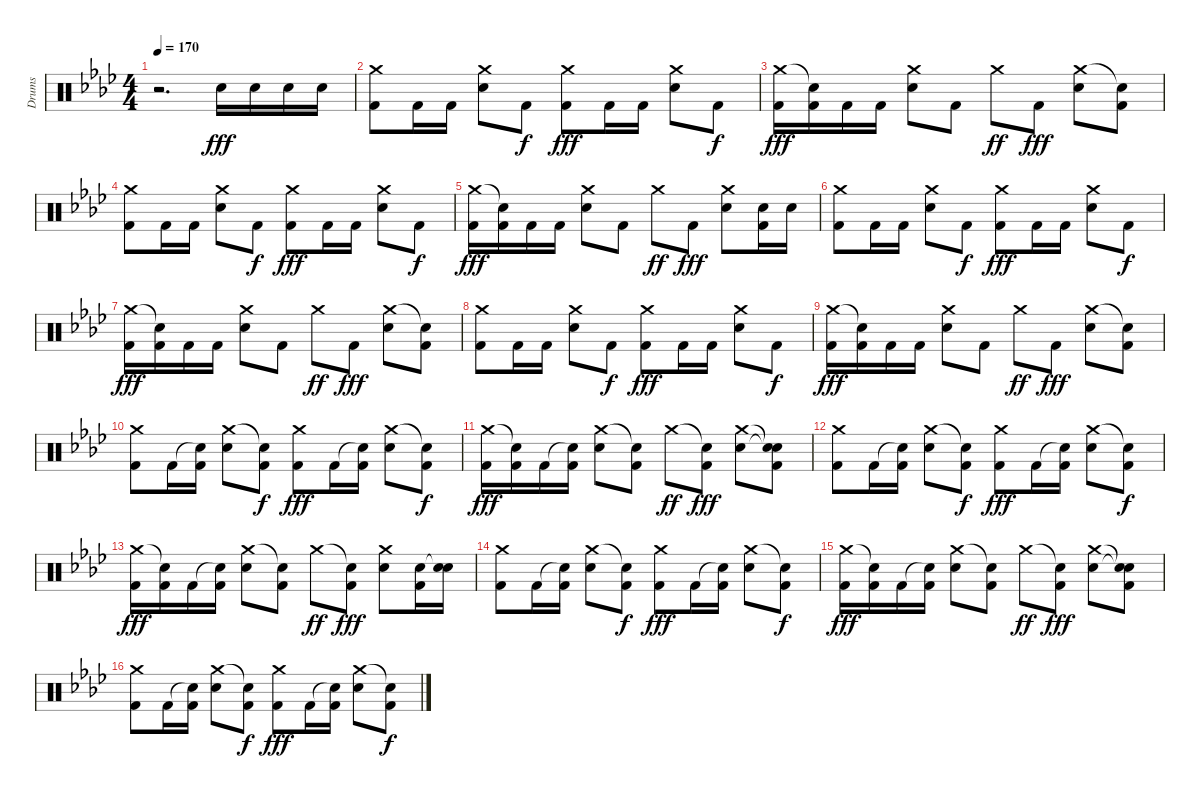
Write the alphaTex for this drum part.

\track ("Drums" "Drums") {instrument percussion}
\staff {score}
\articulation defaults
\ts (4 4)
\tempo 170
\clef neutral
\ks fminor
r.2{d dy fff} "Snare (hit) 2".16 "Snare (hit) 2".16 "Snare (hit) 2".16 "Snare (hit) 2".16 |
("Crash medium (hit)" "Kick (hit) 2").8 "Kick (hit) 2".16 "Kick (hit) 2".16 ("Crash medium (hit)" "Snare (hit) 2").8 "Kick (hit) 2".8{dy f} ("Crash medium (hit)" "Kick (hit) 2").8{dy fff} "Kick (hit) 2".16 "Kick (hit) 2".16 ("Crash medium (hit)" "Snare (hit) 2").8 "Kick (hit) 2".8{dy f} |
("Crash medium (hit)" "Kick (hit) 2").16{dy fff} ("Snare (hit)"{t} "Kick (hit) 2").16 "Kick (hit) 2".16 "Kick (hit) 2".16 ("Crash medium (hit)" "Snare (hit) 2").8 "Kick (hit) 2".8 "Crash medium (hit)".8{dy ff} "Kick (hit) 2".8{dy fff} ("Crash medium (hit)" "Snare (hit) 2").8 ("Snare (hit)"{t} "Kick (hit) 2").8 |
("Crash medium (hit)" "Kick (hit) 2").8 "Kick (hit) 2".16 "Kick (hit) 2".16 ("Crash medium (hit)" "Snare (hit) 2").8 "Kick (hit) 2".8{dy f} ("Crash medium (hit)" "Kick (hit) 2").8{dy fff} "Kick (hit) 2".16 "Kick (hit) 2".16 ("Crash medium (hit)" "Snare (hit) 2").8 "Kick (hit) 2".8{dy f} |
("Crash medium (hit)" "Kick (hit) 2").16{dy fff} ("Snare (hit)"{t} "Kick (hit) 2").16 "Kick (hit) 2".16 "Kick (hit) 2".16 ("Crash medium (hit)" "Snare (hit) 2").8 "Kick (hit) 2".8 "Crash medium (hit)".8{dy ff} "Kick (hit) 2".8{dy fff} ("Crash medium (hit)" "Snare (hit) 2").8 ("Snare (hit) 2" "Kick (hit) 2").16 "Snare (hit) 2".16 |
("Crash medium (hit)" "Kick (hit) 2").8 "Kick (hit) 2".16 "Kick (hit) 2".16 ("Crash medium (hit)" "Snare (hit) 2").8 "Kick (hit) 2".8{dy f} ("Crash medium (hit)" "Kick (hit) 2").8{dy fff} "Kick (hit) 2".16 "Kick (hit) 2".16 ("Crash medium (hit)" "Snare (hit) 2").8 "Kick (hit) 2".8{dy f} |
("Crash medium (hit)" "Kick (hit) 2").16{dy fff} ("Snare (hit)"{t} "Kick (hit) 2").16 "Kick (hit) 2".16 "Kick (hit) 2".16 ("Crash medium (hit)" "Snare (hit) 2").8 "Kick (hit) 2".8 "Crash medium (hit)".8{dy ff} "Kick (hit) 2".8{dy fff} ("Crash medium (hit)" "Snare (hit) 2").8 ("Snare (hit)"{t} "Kick (hit) 2").8 |
("Crash medium (hit)" "Kick (hit) 2").8 "Kick (hit) 2".16 "Kick (hit) 2".16 ("Crash medium (hit)" "Snare (hit) 2").8 "Kick (hit) 2".8{dy f} ("Crash medium (hit)" "Kick (hit) 2").8{dy fff} "Kick (hit) 2".16 "Kick (hit) 2".16 ("Crash medium (hit)" "Snare (hit) 2").8 "Kick (hit) 2".8{dy f} |
("Crash medium (hit)" "Kick (hit) 2").16{dy fff} ("Snare (hit)"{t} "Kick (hit) 2").16 "Kick (hit) 2".16 "Kick (hit) 2".16 ("Crash medium (hit)" "Snare (hit) 2").8 "Kick (hit) 2".8 "Crash medium (hit)".8{dy ff} "Kick (hit) 2".8{dy fff} ("Crash medium (hit)" "Snare (hit) 2").8 ("Snare (hit)"{t} "Kick (hit) 2").8 |
("Crash medium (hit)" "Kick (hit) 2").8 "Kick (hit) 2".16 ("Snare (hit)"{t} "Kick (hit) 2").16 ("Crash medium (hit)" "Snare (hit) 2").8 ("Snare (hit)"{t} "Kick (hit) 2").8{dy f} ("Crash medium (hit)" "Kick (hit) 2").8{dy fff} "Kick (hit) 2".16 ("Snare (hit)"{t} "Kick (hit) 2").16 ("Crash medium (hit)" "Snare (hit) 2").8 ("Snare (hit)"{t} "Kick (hit) 2").8{dy f} |
("Crash medium (hit)" "Kick (hit) 2").16{dy fff} ("Snare (hit)"{t} "Kick (hit) 2").16 "Kick (hit) 2".16 ("Snare (hit)"{t} "Kick (hit) 2").16 ("Crash medium (hit)" "Snare (hit) 2").8 ("Snare (hit)"{t} "Kick (hit) 2").8 "Crash medium (hit)".8{dy ff} ("Snare (hit)"{t} "Kick (hit) 2").8{dy fff} ("Crash medium (hit)" "Snare (hit) 2").8 ("Snare (hit)"{t} "Snare (hit)"{t} "Kick (hit) 2").8 |
("Crash medium (hit)" "Kick (hit) 2").8 "Kick (hit) 2".16 ("Snare (hit)"{t} "Kick (hit) 2").16 ("Crash medium (hit)" "Snare (hit) 2").8 ("Snare (hit)"{t} "Kick (hit) 2").8{dy f} ("Crash medium (hit)" "Kick (hit) 2").8{dy fff} "Kick (hit) 2".16 ("Snare (hit)"{t} "Kick (hit) 2").16 ("Crash medium (hit)" "Snare (hit) 2").8 ("Snare (hit)"{t} "Kick (hit) 2").8{dy f} |
("Crash medium (hit)" "Kick (hit) 2").16{dy fff} ("Snare (hit)"{t} "Kick (hit) 2").16 "Kick (hit) 2".16 ("Snare (hit)"{t} "Kick (hit) 2").16 ("Crash medium (hit)" "Snare (hit) 2").8 ("Snare (hit)"{t} "Kick (hit) 2").8 "Crash medium (hit)".8{dy ff} ("Snare (hit)"{t} "Kick (hit) 2").8{dy fff} ("Crash medium (hit)" "Snare (hit) 2").8 ("Snare (hit) 2" "Kick (hit) 2").16 ("Snare (hit)"{t} "Snare (hit) 2").16 |
("Crash medium (hit)" "Kick (hit) 2").8 "Kick (hit) 2".16 ("Snare (hit)"{t} "Kick (hit) 2").16 ("Crash medium (hit)" "Snare (hit) 2").8 ("Snare (hit)"{t} "Kick (hit) 2").8{dy f} ("Crash medium (hit)" "Kick (hit) 2").8{dy fff} "Kick (hit) 2".16 ("Snare (hit)"{t} "Kick (hit) 2").16 ("Crash medium (hit)" "Snare (hit) 2").8 ("Snare (hit)"{t} "Kick (hit) 2").8{dy f} |
("Crash medium (hit)" "Kick (hit) 2").16{dy fff} ("Snare (hit)"{t} "Kick (hit) 2").16 "Kick (hit) 2".16 ("Snare (hit)"{t} "Kick (hit) 2").16 ("Crash medium (hit)" "Snare (hit) 2").8 ("Snare (hit)"{t} "Kick (hit) 2").8 "Crash medium (hit)".8{dy ff} ("Snare (hit)"{t} "Kick (hit) 2").8{dy fff} ("Crash medium (hit)" "Snare (hit) 2").8 ("Snare (hit)"{t} "Snare (hit)"{t} "Kick (hit) 2").8 |
("Crash medium (hit)" "Kick (hit) 2").8 "Kick (hit) 2".16 ("Snare (hit)"{t} "Kick (hit) 2").16 ("Crash medium (hit)" "Snare (hit) 2").8 ("Snare (hit)"{t} "Kick (hit) 2").8{dy f} ("Crash medium (hit)" "Kick (hit) 2").8{dy fff} "Kick (hit) 2".16 ("Snare (hit)"{t} "Kick (hit) 2").16 ("Crash medium (hit)" "Snare (hit) 2").8 ("Snare (hit)"{t} "Kick (hit) 2").8{dy f}
